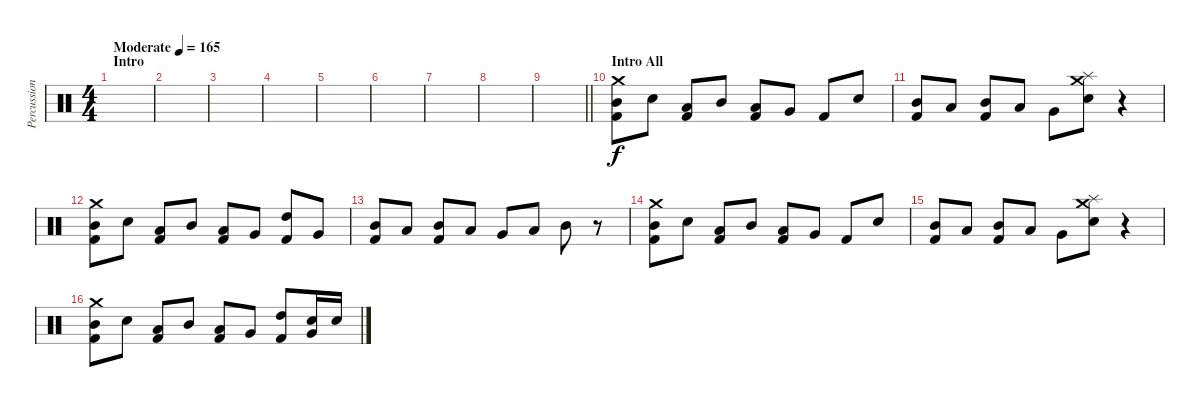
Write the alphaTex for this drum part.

\track ("Percussion" "Percussion") {instrument percussion}
\staff {score}
\articulation defaults
\ts (4 4)
\section ("" "Intro")
\tempo (165 "Moderate")
\clef neutral
\ks c
|
|
|
|
|
|
|
|
\barLineRight lightlight
|
\section ("" "Intro All")
("Crash medium (hit)" "Mid Tom (hit)" "Kick (hit) 2").8 "Snare (hit) 2".8 ("Low Tom (hit)" "Kick (hit) 2").8 "Mid Tom (hit)".8 ("Low Tom (hit)" "Kick (hit) 2").8 "Very Low Tom (hit)".8 "Kick (hit) 2".8 "Snare (hit) 2".8 |
("Mid Tom (hit)" "Kick (hit) 2").8 "Low Tom (hit)".8 ("Mid Tom (hit)" "Kick (hit) 2").8 "Low Tom (hit)".8 "Very Low Tom (hit)".8 ("Splash (hit)" "Crash medium (hit)" "Snare (hit) 2").8 r.4 |
("Crash medium (hit)" "Mid Tom (hit)" "Kick (hit) 2").8 "Snare (hit) 2".8 ("Low Tom (hit)" "Kick (hit) 2").8 "Mid Tom (hit)".8 ("Low Tom (hit)" "Kick (hit) 2").8 "Very Low Tom (hit)".8 ("High Tom (hit)" "Kick (hit) 2").8 "Very Low Tom (hit)".8 |
("Mid Tom (hit)" "Kick (hit) 2").8 "Low Tom (hit)".8 ("Mid Tom (hit)" "Kick (hit) 2").8 "Low Tom (hit)".8 "Very Low Tom (hit)".8 "Low Tom (hit)".8 "Mid Tom (hit)".8 r.8 |
("Crash medium (hit)" "Mid Tom (hit)" "Kick (hit) 2").8 "Snare (hit) 2".8 ("Low Tom (hit)" "Kick (hit) 2").8 "Mid Tom (hit)".8 ("Low Tom (hit)" "Kick (hit) 2").8 "Very Low Tom (hit)".8 "Kick (hit) 2".8 "Snare (hit) 2".8 |
("Mid Tom (hit)" "Kick (hit) 2").8 "Low Tom (hit)".8 ("Mid Tom (hit)" "Kick (hit) 2").8 "Low Tom (hit)".8 "Very Low Tom (hit)".8 ("Splash (hit)" "Crash medium (hit)" "Snare (hit) 2").8 r.4 |
("Crash medium (hit)" "Mid Tom (hit)" "Kick (hit) 2").8 "Snare (hit) 2".8 ("Low Tom (hit)" "Kick (hit) 2").8 "Mid Tom (hit)".8 ("Low Tom (hit)" "Kick (hit) 2").8 "Very Low Tom (hit)".8 ("High Tom (hit)" "Kick (hit) 2").8 ("Very Low Tom (hit)" "Snare (hit) 2").16 "Snare (hit) 2".16
